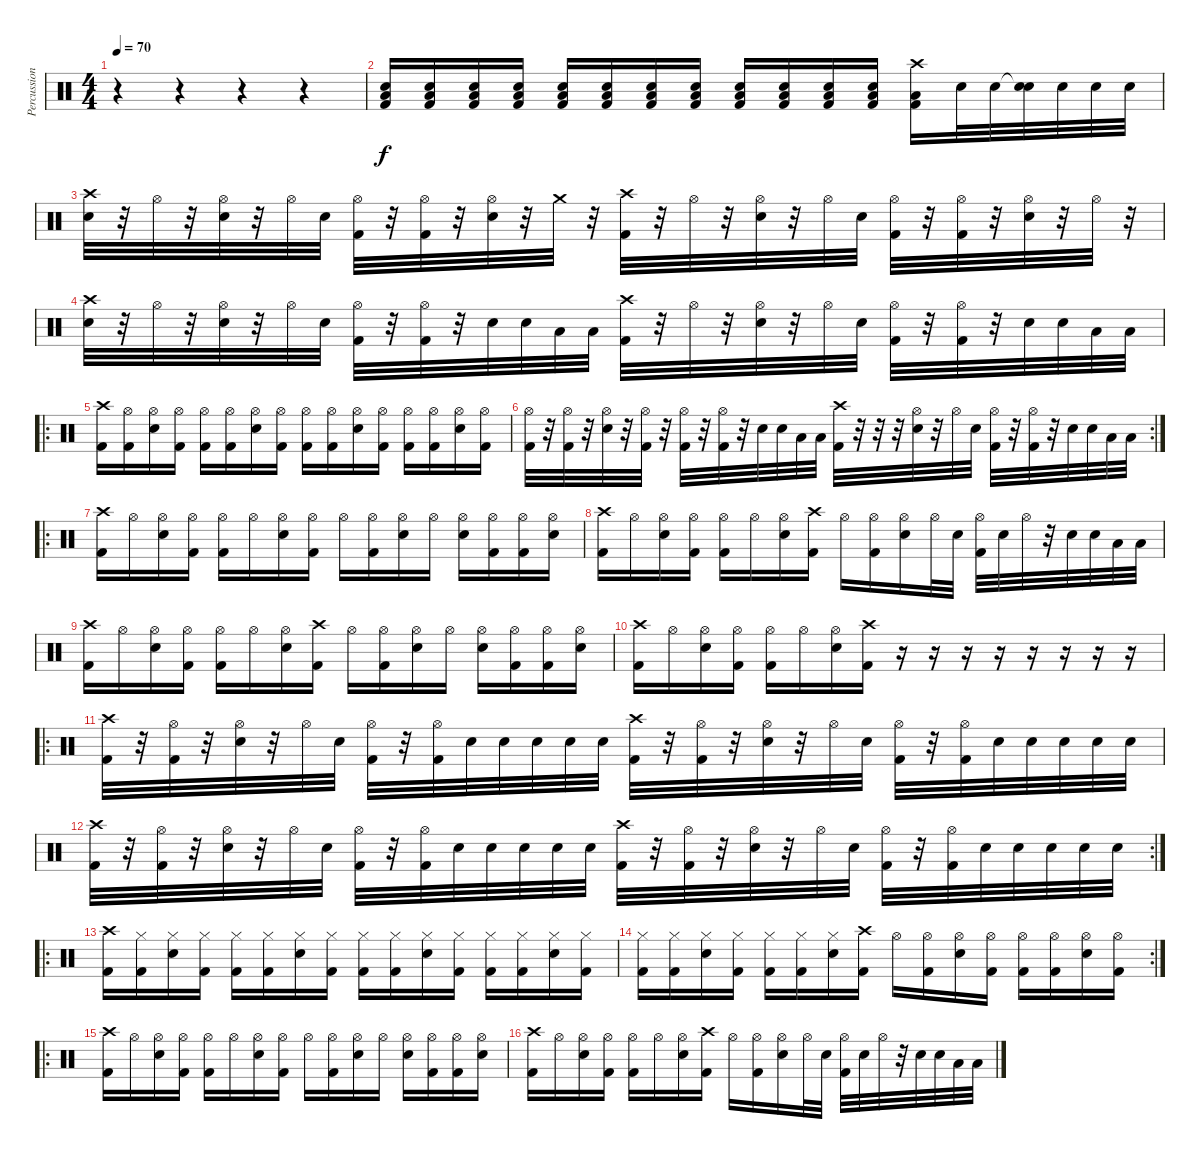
\track ("Percussion" "Percussion") {instrument percussion}
\staff {score}
\articulation defaults
\ts (4 4)
\tempo 70
\clef neutral
\ks c
r.4{dy f} r.4 r.4 r.4 |
("Low Floor Tom (hit)" "Snare (hit) 2" "Kick (hit) 2").16{volume 0} ("Low Floor Tom (hit)" "Snare (hit) 2" "Kick (hit) 2").16 ("Low Floor Tom (hit)" "Snare (hit) 2" "Kick (hit) 2").16{volume 5} ("Low Floor Tom (hit)" "Snare (hit) 2" "Kick (hit) 2").16 ("Low Floor Tom (hit)" "Snare (hit) 2" "Kick (hit) 2").16{volume 11} ("Low Floor Tom (hit)" "Snare (hit) 2" "Kick (hit) 2").16 ("Low Floor Tom (hit)" "Snare (hit) 2" "Kick (hit) 2").16{volume 16} ("Low Floor Tom (hit)" "Snare (hit) 2" "Kick (hit) 2").16 ("Low Floor Tom (hit)" "Snare (hit) 2" "Kick (hit) 2").16 ("Low Floor Tom (hit)" "Snare (hit) 2" "Kick (hit) 2").16 ("Low Floor Tom (hit)" "Snare (hit) 2" "Kick (hit) 2").16 ("Low Floor Tom (hit)" "Snare (hit) 2" "Kick (hit) 2").16 ("Crash high (hit)" "Low Floor Tom (hit)" "Kick (hit) 2").16 "Snare (hit) 2".32 "Snare (hit) 2".32 ("Snare (hit)"{t} "Snare (hit) 2").32 "Snare (hit) 2".32 "Snare (hit) 2".32 "Snare (hit) 2".32 |
("Crash high (hit)" "Snare (hit) 2").32 r.32 "Hi-Hat (open)".32 r.32 ("Hi-Hat (open)" "Snare (hit) 2").32 r.32 "Hi-Hat (open)".32 "Snare (hit) 2".32 ("Hi-Hat (open)" "Kick (hit) 2").32 r.32 ("Hi-Hat (open)" "Kick (hit) 2").32 r.32 ("Hi-Hat (open)" "Snare (hit) 2").32 r.32 "Crash medium (hit)".32 r.32 ("Crash high (hit)" "Kick (hit) 2").32 r.32 "Hi-Hat (open)".32 r.32 ("Hi-Hat (open)" "Snare (hit) 2").32 r.32 "Hi-Hat (open)".32 "Snare (hit) 2".32 ("Hi-Hat (open)" "Kick (hit) 2").32 r.32 ("Hi-Hat (open)" "Kick (hit) 2").32 r.32 ("Hi-Hat (open)" "Snare (hit) 2").32 r.32 "Hi-Hat (open)".32 r.32 |
("Crash high (hit)" "Snare (hit) 2").32 r.32 "Hi-Hat (open)".32 r.32 ("Hi-Hat (open)" "Snare (hit) 2").32 r.32 "Hi-Hat (open)".32 "Snare (hit) 2".32 ("Hi-Hat (open)" "Kick (hit) 2").32 r.32 ("Hi-Hat (open)" "Kick (hit) 2").32 r.32 "Snare (hit) 2".32 "Snare (hit) 2".32 "Low Floor Tom (hit)".32 "Low Floor Tom (hit)".32 ("Crash high (hit)" "Kick (hit) 2").32 r.32 "Hi-Hat (open)".32 r.32 ("Hi-Hat (open)" "Snare (hit) 2").32 r.32 "Hi-Hat (open)".32 "Snare (hit) 2".32 ("Hi-Hat (open)" "Kick (hit) 2").32 r.32 ("Hi-Hat (open)" "Kick (hit) 2").32 r.32 "Snare (hit) 2".32 "Snare (hit) 2".32 "Low Floor Tom (hit)".32 "Low Floor Tom (hit)".32 |
\ro
("Crash high (hit)" "Kick (hit) 2").16 ("Hi-Hat (open)" "Kick (hit) 2").16 ("Hi-Hat (open)" "Snare (hit) 2").16 ("Hi-Hat (open)" "Kick (hit) 2").16 ("Hi-Hat (open)" "Kick (hit) 2").16 ("Hi-Hat (open)" "Kick (hit) 2").16 ("Hi-Hat (open)" "Snare (hit) 2").16 ("Hi-Hat (open)" "Kick (hit) 2").16 ("Hi-Hat (open)" "Kick (hit) 2").16 ("Hi-Hat (open)" "Kick (hit) 2").16 ("Hi-Hat (open)" "Snare (hit) 2").16 ("Hi-Hat (open)" "Kick (hit) 2").16 ("Hi-Hat (open)" "Kick (hit) 2").16 ("Hi-Hat (open)" "Kick (hit) 2").16 ("Hi-Hat (open)" "Snare (hit) 2").16 ("Hi-Hat (open)" "Kick (hit) 2").16 |
\rc 2
("Hi-Hat (open)" "Kick (hit) 2").32 r.32 ("Hi-Hat (open)" "Kick (hit) 2").32 r.32 ("Hi-Hat (open)" "Snare (hit) 2").32 r.32 ("Hi-Hat (open)" "Kick (hit) 2").32 r.32 ("Hi-Hat (open)" "Kick (hit) 2").32 r.32 ("Hi-Hat (open)" "Kick (hit) 2").32 r.32 "Snare (hit) 2".32 "Snare (hit) 2".32 "Low Floor Tom (hit)".32 "Low Floor Tom (hit)".32 ("Crash high (hit)" "Kick (hit) 2").32 r.32 r.32 r.32 ("Hi-Hat (open)" "Snare (hit) 2").32 r.32 "Hi-Hat (open)".32 "Snare (hit) 2".32 ("Hi-Hat (open)" "Kick (hit) 2").32 r.32 ("Hi-Hat (open)" "Kick (hit) 2").32 r.32 "Snare (hit) 2".32 "Snare (hit) 2".32 "Low Floor Tom (hit)".32 "Low Floor Tom (hit)".32 |
\ro
("Crash high (hit)" "Kick (hit) 2").16 "Hi-Hat (open)".16 ("Hi-Hat (open)" "Snare (hit) 2").16 ("Hi-Hat (open)" "Kick (hit) 2").16 ("Hi-Hat (open)" "Kick (hit) 2").16 "Hi-Hat (open)".16 ("Hi-Hat (open)" "Snare (hit) 2").16 ("Hi-Hat (open)" "Kick (hit) 2").16 "Hi-Hat (open)".16 ("Hi-Hat (open)" "Kick (hit) 2").16 ("Hi-Hat (open)" "Snare (hit) 2").16 "Hi-Hat (open)".16 ("Hi-Hat (open)" "Snare (hit) 2").16 ("Hi-Hat (open)" "Kick (hit) 2").16 ("Hi-Hat (open)" "Kick (hit) 2").16 ("Hi-Hat (open)" "Snare (hit) 2").16 |
("Crash high (hit)" "Kick (hit) 2").16 "Hi-Hat (open)".16 ("Hi-Hat (open)" "Snare (hit) 2").16 ("Hi-Hat (open)" "Kick (hit) 2").16 ("Hi-Hat (open)" "Kick (hit) 2").16 "Hi-Hat (open)".16 ("Hi-Hat (open)" "Snare (hit) 2").16 ("Crash high (hit)" "Kick (hit) 2").16 "Hi-Hat (open)".16 ("Hi-Hat (open)" "Kick (hit) 2").16 ("Hi-Hat (open)" "Snare (hit) 2").16 "Hi-Hat (open)".32 "Snare (hit) 2".32 ("Hi-Hat (open)" "Kick (hit) 2").32 "Snare (hit) 2".32 "Hi-Hat (open)".32 r.32 "Snare (hit) 2".32 "Snare (hit) 2".32 "Low Floor Tom (hit)".32 "Low Floor Tom (hit)".32 |
("Crash high (hit)" "Kick (hit) 2").16 "Hi-Hat (open)".16 ("Hi-Hat (open)" "Snare (hit) 2").16 ("Hi-Hat (open)" "Kick (hit) 2").16 ("Hi-Hat (open)" "Kick (hit) 2").16 "Hi-Hat (open)".16 ("Hi-Hat (open)" "Snare (hit) 2").16 ("Crash high (hit)" "Kick (hit) 2").16 "Hi-Hat (open)".16 ("Hi-Hat (open)" "Kick (hit) 2").16 ("Hi-Hat (open)" "Snare (hit) 2").16 "Hi-Hat (open)".16 ("Hi-Hat (open)" "Snare (hit) 2").16 ("Hi-Hat (open)" "Kick (hit) 2").16 ("Hi-Hat (open)" "Kick (hit) 2").16 ("Hi-Hat (open)" "Snare (hit) 2").16 |
("Crash high (hit)" "Kick (hit) 2").16 "Hi-Hat (open)".16 ("Hi-Hat (open)" "Snare (hit) 2").16 ("Hi-Hat (open)" "Kick (hit) 2").16 ("Hi-Hat (open)" "Kick (hit) 2").16 "Hi-Hat (open)".16 ("Hi-Hat (open)" "Snare (hit) 2").16 ("Crash high (hit)" "Kick (hit) 2").16 r.16 r.16 r.16 r.16 r.16 r.16 r.16 r.16 |
\ro
("Crash high (hit)" "Kick (hit) 2").32 r.32 ("Hi-Hat (open)" "Kick (hit) 2").32 r.32 ("Hi-Hat (open)" "Snare (hit) 2").32 r.32 "Hi-Hat (open)".32 "Snare (hit) 2".32 ("Hi-Hat (open)" "Kick (hit) 2").32 r.32 ("Hi-Hat (open)" "Kick (hit) 2").32 "Snare (hit) 2".32 "Snare (hit) 2".32 "Snare (hit) 2".32 "Snare (hit) 2".32 "Snare (hit) 2".32 ("Crash high (hit)" "Kick (hit) 2").32 r.32 ("Hi-Hat (open)" "Kick (hit) 2").32 r.32 ("Hi-Hat (open)" "Snare (hit) 2").32 r.32 "Hi-Hat (open)".32 "Snare (hit) 2".32 ("Hi-Hat (open)" "Kick (hit) 2").32 r.32 ("Hi-Hat (open)" "Kick (hit) 2").32 "Snare (hit) 2".32 "Snare (hit) 2".32 "Snare (hit) 2".32 "Snare (hit) 2".32 "Snare (hit) 2".32 |
\rc 2
("Crash high (hit)" "Kick (hit) 2").32 r.32 ("Hi-Hat (open)" "Kick (hit) 2").32 r.32 ("Hi-Hat (open)" "Snare (hit) 2").32 r.32 "Hi-Hat (open)".32 "Snare (hit) 2".32 ("Hi-Hat (open)" "Kick (hit) 2").32 r.32 ("Hi-Hat (open)" "Kick (hit) 2").32 "Snare (hit) 2".32 "Snare (hit) 2".32 "Snare (hit) 2".32 "Snare (hit) 2".32 "Snare (hit) 2".32 ("Crash high (hit)" "Kick (hit) 2").32 r.32 ("Hi-Hat (open)" "Kick (hit) 2").32 r.32 ("Hi-Hat (open)" "Snare (hit) 2").32 r.32 "Hi-Hat (open)".32 "Snare (hit) 2".32 ("Hi-Hat (open)" "Kick (hit) 2").32 r.32 ("Hi-Hat (open)" "Kick (hit) 2").32 "Snare (hit) 2".32 "Snare (hit) 2".32 "Snare (hit) 2".32 "Snare (hit) 2".32 "Snare (hit) 2".32 |
\ro
("Crash high (hit)" "Kick (hit) 2").16 ("Hi-Hat (closed)" "Kick (hit) 2").16 ("Hi-Hat (closed)" "Snare (hit) 2").16 ("Hi-Hat (closed)" "Kick (hit) 2").16 ("Hi-Hat (closed)" "Kick (hit) 2").16 ("Hi-Hat (closed)" "Kick (hit) 2").16 ("Hi-Hat (closed)" "Snare (hit) 2").16 ("Hi-Hat (closed)" "Kick (hit) 2").16 ("Hi-Hat (closed)" "Kick (hit) 2").16 ("Hi-Hat (closed)" "Kick (hit) 2").16 ("Hi-Hat (closed)" "Snare (hit) 2").16 ("Hi-Hat (closed)" "Kick (hit) 2").16 ("Hi-Hat (closed)" "Kick (hit) 2").16 ("Hi-Hat (closed)" "Kick (hit) 2").16 ("Hi-Hat (closed)" "Snare (hit) 2").16 ("Hi-Hat (closed)" "Kick (hit) 2").16 |
\rc 2
("Hi-Hat (closed)" "Kick (hit) 2").16 ("Hi-Hat (closed)" "Kick (hit) 2").16 ("Hi-Hat (closed)" "Snare (hit) 2").16 ("Hi-Hat (closed)" "Kick (hit) 2").16 ("Hi-Hat (closed)" "Kick (hit) 2").16 ("Hi-Hat (closed)" "Kick (hit) 2").16 ("Hi-Hat (closed)" "Snare (hit) 2").16 ("Crash high (hit)" "Kick (hit) 2").16 "Hi-Hat (open)".16 ("Hi-Hat (open)" "Kick (hit) 2").16 ("Hi-Hat (open)" "Snare (hit) 2").16 ("Hi-Hat (open)" "Kick (hit) 2").16 ("Hi-Hat (open)" "Kick (hit) 2").16 ("Hi-Hat (open)" "Kick (hit) 2").16 ("Hi-Hat (open)" "Snare (hit) 2").16 ("Hi-Hat (open)" "Kick (hit) 2").16 |
\ro
("Crash high (hit)" "Kick (hit) 2").16 "Hi-Hat (open)".16 ("Hi-Hat (open)" "Snare (hit) 2").16 ("Hi-Hat (open)" "Kick (hit) 2").16 ("Hi-Hat (open)" "Kick (hit) 2").16 "Hi-Hat (open)".16 ("Hi-Hat (open)" "Snare (hit) 2").16 ("Hi-Hat (open)" "Kick (hit) 2").16 "Hi-Hat (open)".16 ("Hi-Hat (open)" "Kick (hit) 2").16 ("Hi-Hat (open)" "Snare (hit) 2").16 "Hi-Hat (open)".16 ("Hi-Hat (open)" "Snare (hit) 2").16 ("Hi-Hat (open)" "Kick (hit) 2").16 ("Hi-Hat (open)" "Kick (hit) 2").16 ("Hi-Hat (open)" "Snare (hit) 2").16 |
("Crash high (hit)" "Kick (hit) 2").16 "Hi-Hat (open)".16 ("Hi-Hat (open)" "Snare (hit) 2").16 ("Hi-Hat (open)" "Kick (hit) 2").16 ("Hi-Hat (open)" "Kick (hit) 2").16 "Hi-Hat (open)".16 ("Hi-Hat (open)" "Snare (hit) 2").16 ("Crash high (hit)" "Kick (hit) 2").16 "Hi-Hat (open)".16 ("Hi-Hat (open)" "Kick (hit) 2").16 ("Hi-Hat (open)" "Snare (hit) 2").16 "Hi-Hat (open)".32 "Snare (hit) 2".32 ("Hi-Hat (open)" "Kick (hit) 2").32 "Snare (hit) 2".32 "Hi-Hat (open)".32 r.32 "Snare (hit) 2".32 "Snare (hit) 2".32 "Low Floor Tom (hit)".32 "Low Floor Tom (hit)".32
